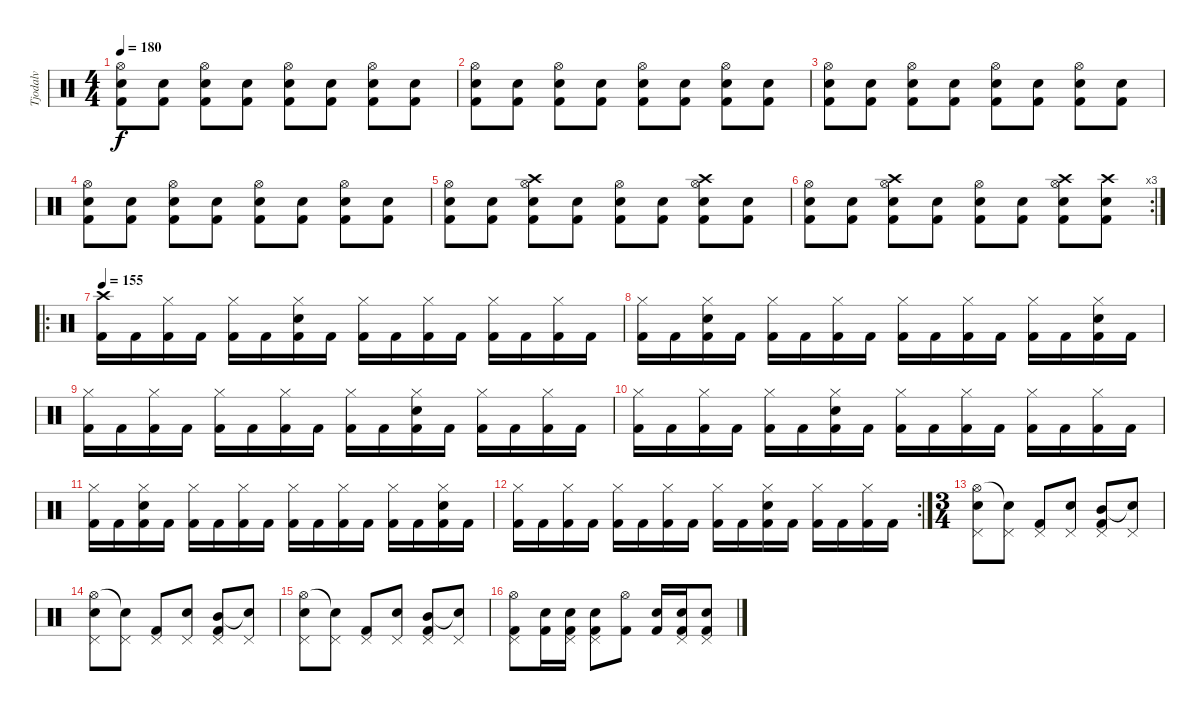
\track ("Tjodalv" "Tjodalv") {instrument percussion}
\staff {score}
\articulation defaults
\ts (4 4)
\tempo 180
\clef neutral
\ks c
("Hi-Hat (open)" "Snare (hit) 2" "Kick (hit) 2").8{dy f} ("Snare (hit) 2" "Kick (hit) 2").8 ("Hi-Hat (open)" "Snare (hit) 2" "Kick (hit) 2").8 ("Snare (hit) 2" "Kick (hit) 2").8 ("Hi-Hat (open)" "Snare (hit) 2" "Kick (hit) 2").8 ("Snare (hit) 2" "Kick (hit) 2").8 ("Hi-Hat (open)" "Snare (hit) 2" "Kick (hit) 2").8 ("Snare (hit) 2" "Kick (hit) 2").8 |
("Hi-Hat (open)" "Snare (hit) 2" "Kick (hit) 2").8 ("Snare (hit) 2" "Kick (hit) 2").8 ("Hi-Hat (open)" "Snare (hit) 2" "Kick (hit) 2").8 ("Snare (hit) 2" "Kick (hit) 2").8 ("Hi-Hat (open)" "Snare (hit) 2" "Kick (hit) 2").8 ("Snare (hit) 2" "Kick (hit) 2").8 ("Hi-Hat (open)" "Snare (hit) 2" "Kick (hit) 2").8 ("Snare (hit) 2" "Kick (hit) 2").8 |
("Hi-Hat (open)" "Snare (hit) 2" "Kick (hit) 2").8 ("Snare (hit) 2" "Kick (hit) 2").8 ("Hi-Hat (open)" "Snare (hit) 2" "Kick (hit) 2").8 ("Snare (hit) 2" "Kick (hit) 2").8 ("Hi-Hat (open)" "Snare (hit) 2" "Kick (hit) 2").8 ("Snare (hit) 2" "Kick (hit) 2").8 ("Hi-Hat (open)" "Snare (hit) 2" "Kick (hit) 2").8 ("Snare (hit) 2" "Kick (hit) 2").8 |
("Hi-Hat (open)" "Snare (hit) 2" "Kick (hit) 2").8 ("Snare (hit) 2" "Kick (hit) 2").8 ("Hi-Hat (open)" "Snare (hit) 2" "Kick (hit) 2").8 ("Snare (hit) 2" "Kick (hit) 2").8 ("Hi-Hat (open)" "Snare (hit) 2" "Kick (hit) 2").8 ("Snare (hit) 2" "Kick (hit) 2").8 ("Hi-Hat (open)" "Snare (hit) 2" "Kick (hit) 2").8 ("Snare (hit) 2" "Kick (hit) 2").8 |
("Hi-Hat (open)" "Snare (hit) 2" "Kick (hit) 2").8 ("Snare (hit) 2" "Kick (hit) 2").8 ("Crash high (hit)" "Hi-Hat (open)" "Snare (hit) 2" "Kick (hit) 2").8 ("Snare (hit) 2" "Kick (hit) 2").8 ("Hi-Hat (open)" "Snare (hit) 2" "Kick (hit) 2").8 ("Snare (hit) 2" "Kick (hit) 2").8 ("Crash high (hit)" "Hi-Hat (open)" "Snare (hit) 2" "Kick (hit) 2").8 ("Snare (hit) 2" "Kick (hit) 2").8 |
\rc 3
("Hi-Hat (open)" "Snare (hit) 2" "Kick (hit) 2").8 ("Snare (hit) 2" "Kick (hit) 2").8 ("Crash high (hit)" "Hi-Hat (open)" "Snare (hit) 2" "Kick (hit) 2").8 ("Snare (hit) 2" "Kick (hit) 2").8 ("Hi-Hat (open)" "Snare (hit) 2" "Kick (hit) 2").8 ("Snare (hit) 2" "Kick (hit) 2").8 ("Crash high (hit)" "Hi-Hat (open)" "Snare (hit) 2" "Kick (hit) 2").8 ("Crash high (hit)" "Snare (hit) 2" "Kick (hit) 2").8 |
\ro
\tempo 155
("Crash high (hit)" "Kick (hit) 2").16 "Kick (hit) 2".16 ("Hi-Hat (closed)" "Kick (hit) 2").16 "Kick (hit) 2".16 ("Hi-Hat (closed)" "Kick (hit) 2").16 "Kick (hit) 2".16 ("Hi-Hat (closed)" "Snare (hit) 2" "Kick (hit) 2").16 "Kick (hit) 2".16 ("Hi-Hat (closed)" "Kick (hit) 2").16 "Kick (hit) 2".16 ("Hi-Hat (closed)" "Kick (hit) 2").16 "Kick (hit) 2".16 ("Hi-Hat (closed)" "Kick (hit) 2").16 "Kick (hit) 2".16 ("Hi-Hat (closed)" "Kick (hit) 2").16 "Kick (hit) 2".16 |
("Hi-Hat (closed)" "Kick (hit) 2").16 "Kick (hit) 2".16 ("Hi-Hat (closed)" "Snare (hit) 2" "Kick (hit) 2").16 "Kick (hit) 2".16 ("Hi-Hat (closed)" "Kick (hit) 2").16 "Kick (hit) 2".16 ("Hi-Hat (closed)" "Kick (hit) 2").16 "Kick (hit) 2".16 ("Hi-Hat (closed)" "Kick (hit) 2").16 "Kick (hit) 2".16 ("Hi-Hat (closed)" "Kick (hit) 2").16 "Kick (hit) 2".16 ("Hi-Hat (closed)" "Kick (hit) 2").16 "Kick (hit) 2".16 ("Hi-Hat (closed)" "Snare (hit) 2" "Kick (hit) 2").16 "Kick (hit) 2".16 |
("Hi-Hat (closed)" "Kick (hit) 2").16 "Kick (hit) 2".16 ("Hi-Hat (closed)" "Kick (hit) 2").16 "Kick (hit) 2".16 ("Hi-Hat (closed)" "Kick (hit) 2").16 "Kick (hit) 2".16 ("Hi-Hat (closed)" "Kick (hit) 2").16 "Kick (hit) 2".16 ("Hi-Hat (closed)" "Kick (hit) 2").16 "Kick (hit) 2".16 ("Hi-Hat (closed)" "Snare (hit) 2" "Kick (hit) 2").16 "Kick (hit) 2".16 ("Hi-Hat (closed)" "Kick (hit) 2").16 "Kick (hit) 2".16 ("Hi-Hat (closed)" "Kick (hit) 2").16 "Kick (hit) 2".16 |
("Hi-Hat (closed)" "Kick (hit) 2").16 "Kick (hit) 2".16 ("Hi-Hat (closed)" "Kick (hit) 2").16 "Kick (hit) 2".16 ("Hi-Hat (closed)" "Kick (hit) 2").16 "Kick (hit) 2".16 ("Hi-Hat (closed)" "Snare (hit) 2" "Kick (hit) 2").16 "Kick (hit) 2".16 ("Hi-Hat (closed)" "Kick (hit) 2").16 "Kick (hit) 2".16 ("Hi-Hat (closed)" "Kick (hit) 2").16 "Kick (hit) 2".16 ("Hi-Hat (closed)" "Kick (hit) 2").16 "Kick (hit) 2".16 ("Hi-Hat (closed)" "Kick (hit) 2").16 "Kick (hit) 2".16 |
("Hi-Hat (closed)" "Kick (hit) 2").16 "Kick (hit) 2".16 ("Hi-Hat (closed)" "Snare (hit) 2" "Kick (hit) 2").16 "Kick (hit) 2".16 ("Hi-Hat (closed)" "Kick (hit) 2").16 "Kick (hit) 2".16 ("Hi-Hat (closed)" "Kick (hit) 2").16 "Kick (hit) 2".16 ("Hi-Hat (closed)" "Kick (hit) 2").16 "Kick (hit) 2".16 ("Hi-Hat (closed)" "Kick (hit) 2").16 "Kick (hit) 2".16 ("Hi-Hat (closed)" "Kick (hit) 2").16 "Kick (hit) 2".16 ("Hi-Hat (closed)" "Snare (hit) 2" "Kick (hit) 2").16 "Kick (hit) 2".16 |
\rc 2
("Hi-Hat (closed)" "Kick (hit) 2").16 "Kick (hit) 2".16 ("Hi-Hat (closed)" "Kick (hit) 2").16 "Kick (hit) 2".16 ("Hi-Hat (closed)" "Kick (hit) 2").16 "Kick (hit) 2".16 ("Hi-Hat (closed)" "Kick (hit) 2").16 "Kick (hit) 2".16 ("Hi-Hat (closed)" "Kick (hit) 2").16 "Kick (hit) 2".16 ("Hi-Hat (closed)" "Snare (hit) 2" "Kick (hit) 2").16 "Kick (hit) 2".16 ("Hi-Hat (closed)" "Kick (hit) 2").16 "Kick (hit) 2".16 ("Hi-Hat (closed)" "Kick (hit) 2").16 "Kick (hit) 2".16 |
\ts (3 4)
("Pedal Hi-Hat (hit)" "Hi-Hat (open)" "Snare (hit) 2").8 ("Pedal Hi-Hat (hit)" "Snare (hit)"{t}).8 ("Pedal Hi-Hat (hit)" "Kick (hit) 2").8 ("Pedal Hi-Hat (hit)" "Snare (hit) 2").8 ("Pedal Hi-Hat (hit)" "Mid Tom (hit)" "Kick (hit) 2").8 ("Pedal Hi-Hat (hit)" "Snare (hit)"{t}).8 |
("Pedal Hi-Hat (hit)" "Hi-Hat (open)" "Snare (hit) 2").8 ("Pedal Hi-Hat (hit)" "Snare (hit)"{t}).8 ("Pedal Hi-Hat (hit)" "Kick (hit) 2").8 ("Pedal Hi-Hat (hit)" "Snare (hit) 2").8 ("Pedal Hi-Hat (hit)" "Mid Tom (hit)" "Kick (hit) 2").8 ("Pedal Hi-Hat (hit)" "Snare (hit)"{t}).8 |
("Pedal Hi-Hat (hit)" "Hi-Hat (open)" "Snare (hit) 2").8 ("Pedal Hi-Hat (hit)" "Snare (hit)"{t}).8 ("Pedal Hi-Hat (hit)" "Kick (hit) 2").8 ("Pedal Hi-Hat (hit)" "Snare (hit) 2").8 ("Pedal Hi-Hat (hit)" "Mid Tom (hit)" "Kick (hit) 2").8 ("Pedal Hi-Hat (hit)" "Snare (hit)"{t}).8 |
("Pedal Hi-Hat (hit)" "Hi-Hat (open)" "Kick (hit) 2").8 ("Snare (hit) 2" "Kick (hit) 2").16 ("Pedal Hi-Hat (hit)" "Snare (hit) 2" "Kick (hit) 2").16 ("Pedal Hi-Hat (hit)" "Snare (hit) 2" "Kick (hit) 2").8 ("Hi-Hat (open)" "Kick (hit) 2").8 ("Snare (hit) 2" "Kick (hit) 2").16 ("Pedal Hi-Hat (hit)" "Snare (hit) 2" "Kick (hit) 2").16 ("Pedal Hi-Hat (hit)" "Snare (hit) 2" "Kick (hit) 2").8
